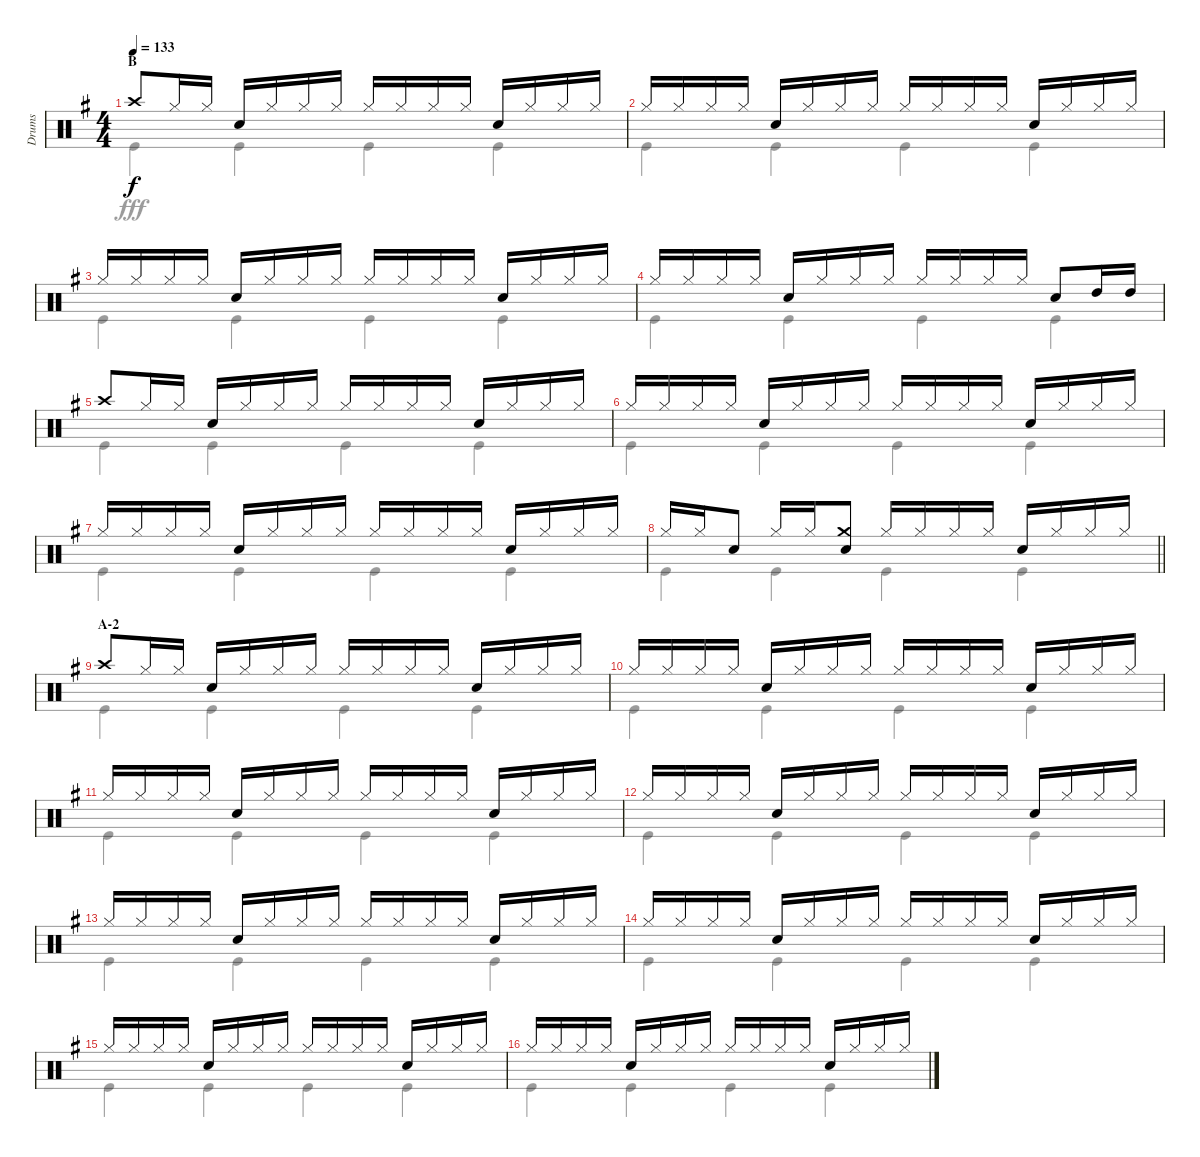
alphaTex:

\track ("Drums" "Drums") {instrument percussion}
\staff {score}
\articulation defaults
\voice
\ts (4 4)
\section ("" "B")
\tempo 133
\clef neutral
\ks g "Crash high (hit)".8{dy f} "Hi-Hat (closed)".16 "Hi-Hat (closed)".16 "Snare (hit) 2".16 "Hi-Hat (closed)".16 "Hi-Hat (closed)".16 "Hi-Hat (closed)".16 "Hi-Hat (closed)".16 "Hi-Hat (closed)".16 "Hi-Hat (closed)".16 "Hi-Hat (closed)".16 "Snare (hit) 2".16 "Hi-Hat (closed)".16 "Hi-Hat (closed)".16 "Hi-Hat (closed)".16
|
"Hi-Hat (closed)".16 "Hi-Hat (closed)".16 "Hi-Hat (closed)".16 "Hi-Hat (closed)".16 "Snare (hit) 2".16 "Hi-Hat (closed)".16 "Hi-Hat (closed)".16 "Hi-Hat (closed)".16 "Hi-Hat (closed)".16 "Hi-Hat (closed)".16 "Hi-Hat (closed)".16 "Hi-Hat (closed)".16 "Snare (hit) 2".16 "Hi-Hat (closed)".16 "Hi-Hat (closed)".16 "Hi-Hat (closed)".16 |
"Hi-Hat (closed)".16 "Hi-Hat (closed)".16 "Hi-Hat (closed)".16 "Hi-Hat (closed)".16 "Snare (hit) 2".16 "Hi-Hat (closed)".16 "Hi-Hat (closed)".16 "Hi-Hat (closed)".16 "Hi-Hat (closed)".16 "Hi-Hat (closed)".16 "Hi-Hat (closed)".16 "Hi-Hat (closed)".16 "Snare (hit) 2".16 "Hi-Hat (closed)".16 "Hi-Hat (closed)".16 "Hi-Hat (closed)".16 |
"Hi-Hat (closed)".16 "Hi-Hat (closed)".16 "Hi-Hat (closed)".16 "Hi-Hat (closed)".16 "Snare (hit) 2".16 "Hi-Hat (closed)".16 "Hi-Hat (closed)".16 "Hi-Hat (closed)".16 "Hi-Hat (closed)".16 "Hi-Hat (closed)".16 "Hi-Hat (closed)".16 "Hi-Hat (closed)".16 "Snare (hit) 2".8 "High Tom (hit)".16 "High Tom (hit)".16 |
"Crash high (hit)".8 "Hi-Hat (closed)".16 "Hi-Hat (closed)".16 "Snare (hit) 2".16 "Hi-Hat (closed)".16 "Hi-Hat (closed)".16 "Hi-Hat (closed)".16 "Hi-Hat (closed)".16 "Hi-Hat (closed)".16 "Hi-Hat (closed)".16 "Hi-Hat (closed)".16 "Snare (hit) 2".16 "Hi-Hat (closed)".16 "Hi-Hat (closed)".16 "Hi-Hat (closed)".16 |
"Hi-Hat (closed)".16 "Hi-Hat (closed)".16 "Hi-Hat (closed)".16 "Hi-Hat (closed)".16 "Snare (hit) 2".16 "Hi-Hat (closed)".16 "Hi-Hat (closed)".16 "Hi-Hat (closed)".16 "Hi-Hat (closed)".16 "Hi-Hat (closed)".16 "Hi-Hat (closed)".16 "Hi-Hat (closed)".16 "Snare (hit) 2".16 "Hi-Hat (closed)".16 "Hi-Hat (closed)".16 "Hi-Hat (closed)".16 |
"Hi-Hat (closed)".16 "Hi-Hat (closed)".16 "Hi-Hat (closed)".16 "Hi-Hat (closed)".16 "Snare (hit) 2".16 "Hi-Hat (closed)".16 "Hi-Hat (closed)".16 "Hi-Hat (closed)".16 "Hi-Hat (closed)".16 "Hi-Hat (closed)".16 "Hi-Hat (closed)".16 "Hi-Hat (closed)".16 "Snare (hit) 2".16 "Hi-Hat (closed)".16 "Hi-Hat (closed)".16 "Hi-Hat (closed)".16 |
\barLineRight lightlight "Hi-Hat (closed)".16 "Hi-Hat (closed)".16 "Snare (hit) 2".8 "Hi-Hat (closed)".16 "Hi-Hat (closed)".16
("Crash medium (hit)" "Snare (hit) 2").8 "Hi-Hat (closed)".16 "Hi-Hat (closed)".16 "Hi-Hat (closed)".16 "Hi-Hat (closed)".16 "Snare (hit) 2".16 "Hi-Hat (closed)".16 "Hi-Hat (closed)".16 "Hi-Hat (closed)".16 |
\section ("" "A-2")
"Crash high (hit)".8 "Hi-Hat (closed)".16 "Hi-Hat (closed)".16 "Snare (hit) 2".16 "Hi-Hat (closed)".16 "Hi-Hat (closed)".16 "Hi-Hat (closed)".16 "Hi-Hat (closed)".16 "Hi-Hat (closed)".16 "Hi-Hat (closed)".16 "Hi-Hat (closed)".16 "Snare (hit) 2".16 "Hi-Hat (closed)".16 "Hi-Hat (closed)".16 "Hi-Hat (closed)".16 |
"Hi-Hat (closed)".16 "Hi-Hat (closed)".16 "Hi-Hat (closed)".16 "Hi-Hat (closed)".16 "Snare (hit) 2".16 "Hi-Hat (closed)".16 "Hi-Hat (closed)".16 "Hi-Hat (closed)".16 "Hi-Hat (closed)".16 "Hi-Hat (closed)".16 "Hi-Hat (closed)".16 "Hi-Hat (closed)".16 "Snare (hit) 2".16 "Hi-Hat (closed)".16 "Hi-Hat (closed)".16 "Hi-Hat (closed)".16 |
"Hi-Hat (closed)".16 "Hi-Hat (closed)".16 "Hi-Hat (closed)".16 "Hi-Hat (closed)".16 "Snare (hit) 2".16 "Hi-Hat (closed)".16 "Hi-Hat (closed)".16 "Hi-Hat (closed)".16 "Hi-Hat (closed)".16 "Hi-Hat (closed)".16 "Hi-Hat (closed)".16 "Hi-Hat (closed)".16 "Snare (hit) 2".16 "Hi-Hat (closed)".16 "Hi-Hat (closed)".16 "Hi-Hat (closed)".16 |
"Hi-Hat (closed)".16 "Hi-Hat (closed)".16 "Hi-Hat (closed)".16 "Hi-Hat (closed)".16 "Snare (hit) 2".16 "Hi-Hat (closed)".16 "Hi-Hat (closed)".16 "Hi-Hat (closed)".16 "Hi-Hat (closed)".16 "Hi-Hat (closed)".16 "Hi-Hat (closed)".16 "Hi-Hat (closed)".16 "Snare (hit) 2".16 "Hi-Hat (closed)".16 "Hi-Hat (closed)".16 "Hi-Hat (closed)".16 |
"Hi-Hat (closed)".16 "Hi-Hat (closed)".16 "Hi-Hat (closed)".16 "Hi-Hat (closed)".16 "Snare (hit) 2".16 "Hi-Hat (closed)".16 "Hi-Hat (closed)".16 "Hi-Hat (closed)".16 "Hi-Hat (closed)".16 "Hi-Hat (closed)".16 "Hi-Hat (closed)".16 "Hi-Hat (closed)".16 "Snare (hit) 2".16 "Hi-Hat (closed)".16 "Hi-Hat (closed)".16 "Hi-Hat (closed)".16 |
"Hi-Hat (closed)".16 "Hi-Hat (closed)".16 "Hi-Hat (closed)".16 "Hi-Hat (closed)".16 "Snare (hit) 2".16 "Hi-Hat (closed)".16 "Hi-Hat (closed)".16 "Hi-Hat (closed)".16 "Hi-Hat (closed)".16 "Hi-Hat (closed)".16 "Hi-Hat (closed)".16 "Hi-Hat (closed)".16 "Snare (hit) 2".16 "Hi-Hat (closed)".16 "Hi-Hat (closed)".16 "Hi-Hat (closed)".16 |
"Hi-Hat (closed)".16 "Hi-Hat (closed)".16 "Hi-Hat (closed)".16 "Hi-Hat (closed)".16 "Snare (hit) 2".16 "Hi-Hat (closed)".16 "Hi-Hat (closed)".16 "Hi-Hat (closed)".16 "Hi-Hat (closed)".16 "Hi-Hat (closed)".16 "Hi-Hat (closed)".16 "Hi-Hat (closed)".16 "Snare (hit) 2".16 "Hi-Hat (closed)".16 "Hi-Hat (closed)".16 "Hi-Hat (closed)".16 |
"Hi-Hat (closed)".16 "Hi-Hat (closed)".16 "Hi-Hat (closed)".16 "Hi-Hat (closed)".16 "Snare (hit) 2".16 "Hi-Hat (closed)".16 "Hi-Hat (closed)".16 "Hi-Hat (closed)".16 "Hi-Hat (closed)".16 "Hi-Hat (closed)".16 "Hi-Hat (closed)".16 "Hi-Hat (closed)".16 "Snare (hit) 2".16 "Hi-Hat (closed)".16 "Hi-Hat (closed)".16 "Hi-Hat (closed)".16
\voice
\clef neutral
\ottava regular
\simile none
\ks g "Kick (hit)".4{dy fff} "Kick (hit)".4 "Kick (hit)".4 "Kick (hit)".4
|
"Kick (hit)".4 "Kick (hit)".4 "Kick (hit)".4 "Kick (hit)".4 |
"Kick (hit)".4 "Kick (hit)".4 "Kick (hit)".4 "Kick (hit)".4 |
"Kick (hit)".4 "Kick (hit)".4 "Kick (hit)".4 "Kick (hit)".4 |
"Kick (hit)".4 "Kick (hit)".4 "Kick (hit)".4 "Kick (hit)".4 |
"Kick (hit)".4 "Kick (hit)".4 "Kick (hit)".4 "Kick (hit)".4 |
"Kick (hit)".4 "Kick (hit)".4 "Kick (hit)".4 "Kick (hit)".4 |
\barLineRight lightlight "Kick (hit)".4 "Kick (hit)".4 "Kick (hit)".4 "Kick (hit)".4
|
"Kick (hit)".4 "Kick (hit)".4 "Kick (hit)".4 "Kick (hit)".4 |
"Kick (hit)".4 "Kick (hit)".4 "Kick (hit)".4 "Kick (hit)".4 |
"Kick (hit)".4 "Kick (hit)".4 "Kick (hit)".4 "Kick (hit)".4 |
"Kick (hit)".4 "Kick (hit)".4 "Kick (hit)".4 "Kick (hit)".4 |
"Kick (hit)".4 "Kick (hit)".4 "Kick (hit)".4 "Kick (hit)".4 |
"Kick (hit)".4 "Kick (hit)".4 "Kick (hit)".4 "Kick (hit)".4 |
"Kick (hit)".4 "Kick (hit)".4 "Kick (hit)".4 "Kick (hit)".4 |
"Kick (hit)".4 "Kick (hit)".4 "Kick (hit)".4 "Kick (hit)".4
